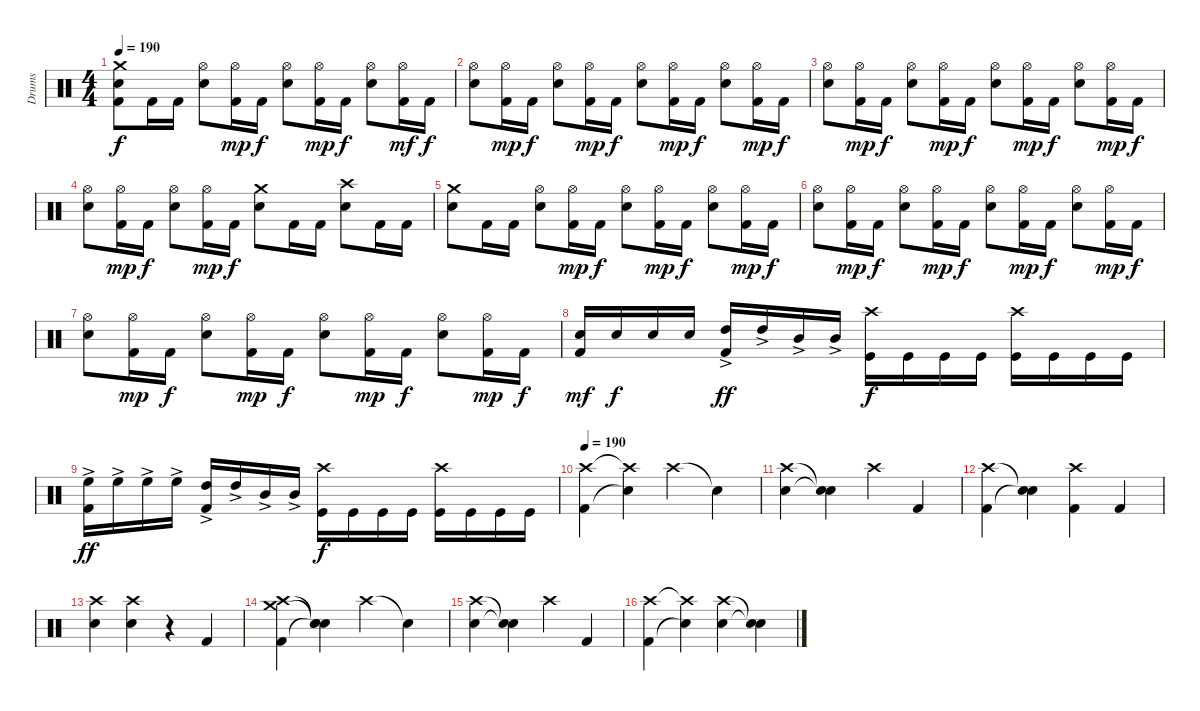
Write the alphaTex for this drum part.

\track ("Drums" "Drums") {instrument percussion}
\staff {score}
\articulation defaults
\ts (4 4)
\tempo 190
\clef neutral
\ks c
("Kick (hit) 2" "Snare (hit) 2" "Crash medium (hit)").8{dy f} "Kick (hit) 2".16 "Kick (hit) 2".16 ("Snare (hit) 2" "Hi-Hat (open)").8 ("Kick (hit) 2" "Hi-Hat (open)").16{dy mp} "Kick (hit) 2".16{dy f} ("Snare (hit) 2" "Hi-Hat (open)").8 ("Kick (hit) 2" "Hi-Hat (open)").16{dy mp} "Kick (hit) 2".16{dy f} ("Snare (hit) 2" "Hi-Hat (open)").8 ("Kick (hit) 2" "Hi-Hat (open)").16{dy mf} "Kick (hit) 2".16{dy f} |
("Snare (hit) 2" "Hi-Hat (open)").8 ("Kick (hit) 2" "Hi-Hat (open)").16{dy mp} "Kick (hit) 2".16{dy f} ("Snare (hit) 2" "Hi-Hat (open)").8 ("Kick (hit) 2" "Hi-Hat (open)").16{dy mp} "Kick (hit) 2".16{dy f} ("Snare (hit) 2" "Hi-Hat (open)").8 ("Kick (hit) 2" "Hi-Hat (open)").16{dy mp} "Kick (hit) 2".16{dy f} ("Snare (hit) 2" "Hi-Hat (open)").8 ("Kick (hit) 2" "Hi-Hat (open)").16{dy mp} "Kick (hit) 2".16{dy f} |
("Snare (hit) 2" "Hi-Hat (open)").8 ("Kick (hit) 2" "Hi-Hat (open)").16{dy mp} "Kick (hit) 2".16{dy f} ("Snare (hit) 2" "Hi-Hat (open)").8 ("Kick (hit) 2" "Hi-Hat (open)").16{dy mp} "Kick (hit) 2".16{dy f} ("Snare (hit) 2" "Hi-Hat (open)").8 ("Kick (hit) 2" "Hi-Hat (open)").16{dy mp} "Kick (hit) 2".16{dy f} ("Snare (hit) 2" "Hi-Hat (open)").8 ("Kick (hit) 2" "Hi-Hat (open)").16{dy mp} "Kick (hit) 2".16{dy f} |
("Snare (hit) 2" "Hi-Hat (open)").8 ("Kick (hit) 2" "Hi-Hat (open)").16{dy mp} "Kick (hit) 2".16{dy f} ("Snare (hit) 2" "Hi-Hat (open)").8 ("Kick (hit) 2" "Hi-Hat (open)").16{dy mp} "Kick (hit) 2".16{dy f} ("Snare (hit) 2" "Crash medium (hit)").8 "Kick (hit) 2".16 "Kick (hit) 2".16 ("Snare (hit) 2" "Crash high (hit)").8 "Kick (hit) 2".16 "Kick (hit) 2".16 |
("Snare (hit) 2" "Crash medium (hit)").8 "Kick (hit) 2".16 "Kick (hit) 2".16 ("Snare (hit) 2" "Hi-Hat (open)").8 ("Kick (hit) 2" "Hi-Hat (open)").16{dy mp} "Kick (hit) 2".16{dy f} ("Snare (hit) 2" "Hi-Hat (open)").8 ("Kick (hit) 2" "Hi-Hat (open)").16{dy mp} "Kick (hit) 2".16{dy f} ("Snare (hit) 2" "Hi-Hat (open)").8 ("Kick (hit) 2" "Hi-Hat (open)").16{dy mp} "Kick (hit) 2".16{dy f} |
("Snare (hit) 2" "Hi-Hat (open)").8 ("Kick (hit) 2" "Hi-Hat (open)").16{dy mp} "Kick (hit) 2".16{dy f} ("Snare (hit) 2" "Hi-Hat (open)").8 ("Kick (hit) 2" "Hi-Hat (open)").16{dy mp} "Kick (hit) 2".16{dy f} ("Snare (hit) 2" "Hi-Hat (open)").8 ("Kick (hit) 2" "Hi-Hat (open)").16{dy mp} "Kick (hit) 2".16{dy f} ("Snare (hit) 2" "Hi-Hat (open)").8 ("Kick (hit) 2" "Hi-Hat (open)").16{dy mp} "Kick (hit) 2".16{dy f} |
("Snare (hit) 2" "Hi-Hat (open)").8 ("Kick (hit) 2" "Hi-Hat (open)").16{dy mp} "Kick (hit) 2".16{dy f} ("Snare (hit) 2" "Hi-Hat (open)").8 ("Kick (hit) 2" "Hi-Hat (open)").16{dy mp} "Kick (hit) 2".16{dy f} ("Snare (hit) 2" "Hi-Hat (open)").8 ("Kick (hit) 2" "Hi-Hat (open)").16{dy mp} "Kick (hit) 2".16{dy f} ("Snare (hit) 2" "Hi-Hat (open)").8 ("Kick (hit) 2" "Hi-Hat (open)").16{dy mp} "Kick (hit) 2".16{dy f} |
("Electric Snare (hit)" "Kick (hit) 2").16{dy mf} "Snare (hit) 2".16{dy f} "Snare (hit) 2".16 "Snare (hit) 2".16 ("High Tom (hit)"{ac} "Kick (hit) 2").16{dy ff} "High Tom (hit)"{ac}.16 "Mid Tom (hit)"{ac}.16 "Mid Tom (hit)"{ac}.16 ("Kick (hit)" "Crash high (hit)").16{dy f} "Kick (hit)".16 "Kick (hit)".16 "Kick (hit)".16 ("Kick (hit)" "Crash high (hit)").16 "Kick (hit)".16 "Kick (hit)".16 "Kick (hit)".16 |
("High Floor Tom (hit)"{ac} "Kick (hit) 2").16{dy ff} "High Floor Tom (hit)"{ac}.16 "High Floor Tom (hit)"{ac}.16 "High Floor Tom (hit)"{ac}.16 ("High Tom (hit)"{ac} "Kick (hit) 2").16 "High Tom (hit)"{ac}.16 "Mid Tom (hit)"{ac}.16 "Mid Tom (hit)"{ac}.16 ("Kick (hit)" "Crash high (hit)").16{dy f} "Kick (hit)".16 "Kick (hit)".16 "Kick (hit)".16 ("Kick (hit)" "Crash high (hit)").16 "Kick (hit)".16 "Kick (hit)".16 "Kick (hit)".16 |
\tempo 190
("Crash high (hit)" "Kick (hit) 2").4 ("Crash high (hit)"{t} "Snare (hit)"{t}).4 "Crash high (hit)".4 "Snare (hit)"{t}.4 |
("Snare (hit) 2" "Crash high (hit)").4 ("Snare (hit)"{t} "Snare (hit)"{t}).4 "Crash high (hit)".4 "Kick (hit) 2".4 |
("Crash high (hit)" "Kick (hit) 2").4 ("Snare (hit)"{t} "Snare (hit)"{t}).4 ("Crash high (hit)" "Kick (hit) 2").4 "Kick (hit) 2".4 |
("Crash high (hit)" "Snare (hit) 2").4 ("Crash high (hit)" "Snare (hit) 2").4 r.4 "Kick (hit) 2".4 |
("Crash high (hit)" "Crash medium (hit)" "Kick (hit) 2").4 ("Snare (hit)"{t} "Snare (hit)"{t} "Snare (hit)"{t}).4 "Crash high (hit)".4 "Snare (hit)"{t}.4 |
("Crash high (hit)" "Snare (hit) 2").4 ("Snare (hit)"{t} "Snare (hit)"{t}).4 "Crash high (hit)".4 "Kick (hit) 2".4 |
("Crash high (hit)" "Kick (hit) 2").4 ("Crash high (hit)"{t} "Snare (hit)"{t}).4 ("Crash high (hit)" "Snare (hit) 2").4 ("Snare (hit)"{t} "Snare (hit)"{t}).4
